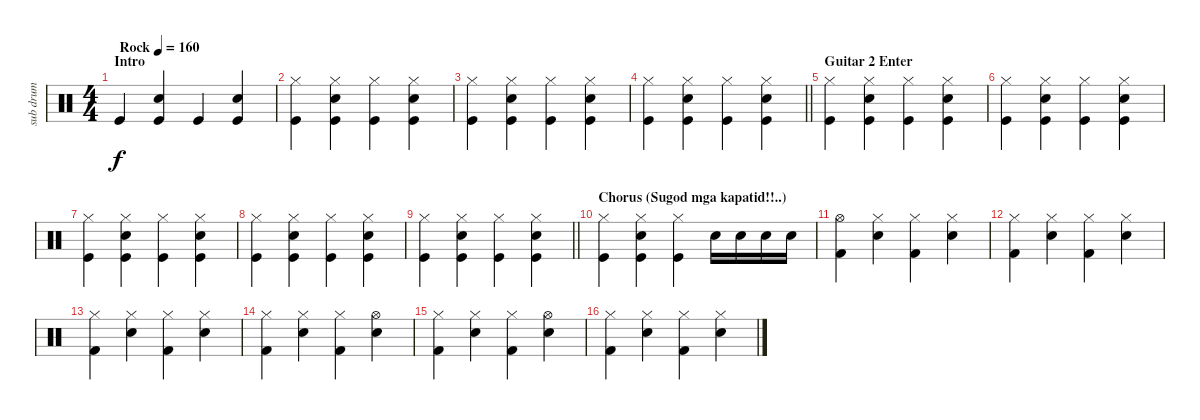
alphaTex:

\track ("sub drum" "sub drum") {instrument percussion}
\staff {score}
\articulation defaults
\ts (4 4)
\section ("" "Intro")
\tempo (160 "Rock")
\clef neutral
\ks c "Kick (hit)".4{dy f}
("Snare (hit) 2" "Kick (hit)").4 "Kick (hit)".4 ("Snare (hit) 2" "Kick (hit)").4 |
("Hi-Hat (closed)" "Kick (hit)").4 ("Hi-Hat (closed)" "Snare (hit) 2" "Kick (hit)").4 ("Hi-Hat (closed)" "Kick (hit)").4 ("Hi-Hat (closed)" "Snare (hit) 2" "Kick (hit)").4 |
("Hi-Hat (closed)" "Kick (hit)").4 ("Hi-Hat (closed)" "Snare (hit) 2" "Kick (hit)").4 ("Hi-Hat (closed)" "Kick (hit)").4 ("Hi-Hat (closed)" "Snare (hit) 2" "Kick (hit)").4 |
\barLineRight lightlight
("Hi-Hat (closed)" "Kick (hit)").4 ("Hi-Hat (closed)" "Snare (hit) 2" "Kick (hit)").4 ("Hi-Hat (closed)" "Kick (hit)").4 ("Hi-Hat (closed)" "Snare (hit) 2" "Kick (hit)").4 |
\section ("" "Guitar 2 Enter")
("Hi-Hat (closed)" "Kick (hit)").4 ("Hi-Hat (closed)" "Snare (hit) 2" "Kick (hit)").4 ("Hi-Hat (closed)" "Kick (hit)").4 ("Hi-Hat (closed)" "Snare (hit) 2" "Kick (hit)").4 |
("Hi-Hat (closed)" "Kick (hit)").4 ("Hi-Hat (closed)" "Snare (hit) 2" "Kick (hit)").4 ("Hi-Hat (closed)" "Kick (hit)").4 ("Hi-Hat (closed)" "Snare (hit) 2" "Kick (hit)").4 |
("Hi-Hat (closed)" "Kick (hit)").4 ("Hi-Hat (closed)" "Snare (hit) 2" "Kick (hit)").4 ("Hi-Hat (closed)" "Kick (hit)").4 ("Hi-Hat (closed)" "Snare (hit) 2" "Kick (hit)").4 |
("Hi-Hat (closed)" "Kick (hit)").4 ("Hi-Hat (closed)" "Snare (hit) 2" "Kick (hit)").4 ("Hi-Hat (closed)" "Kick (hit)").4 ("Hi-Hat (closed)" "Snare (hit) 2" "Kick (hit)").4 |
\barLineRight lightlight
("Hi-Hat (closed)" "Kick (hit)").4 ("Hi-Hat (closed)" "Snare (hit) 2" "Kick (hit)").4 ("Hi-Hat (closed)" "Kick (hit)").4 ("Hi-Hat (closed)" "Snare (hit) 2" "Kick (hit)").4 |
\section ("" "Chorus (Sugod mga kapatid!!..)")
("Hi-Hat (closed)" "Kick (hit)").4 ("Hi-Hat (closed)" "Snare (hit) 2" "Kick (hit)").4 ("Hi-Hat (closed)" "Kick (hit)").4 "Snare (hit) 2".16 "Snare (hit) 2".16 "Snare (hit) 2".16 "Snare (hit) 2".16 |
("Hi-Hat (open)" "Kick (hit) 2").4 ("Hi-Hat (closed)" "Snare (hit) 2").4 ("Hi-Hat (closed)" "Kick (hit) 2").4 ("Hi-Hat (closed)" "Snare (hit) 2").4 |
("Hi-Hat (closed)" "Kick (hit) 2").4 ("Hi-Hat (closed)" "Snare (hit) 2").4 ("Hi-Hat (closed)" "Kick (hit) 2").4 ("Hi-Hat (closed)" "Snare (hit) 2").4 |
("Hi-Hat (closed)" "Kick (hit) 2").4 ("Hi-Hat (closed)" "Snare (hit) 2").4 ("Hi-Hat (closed)" "Kick (hit) 2").4 ("Hi-Hat (closed)" "Snare (hit) 2").4 |
("Hi-Hat (closed)" "Kick (hit) 2").4 ("Hi-Hat (closed)" "Snare (hit) 2").4 ("Hi-Hat (closed)" "Kick (hit) 2").4 ("Hi-Hat (open)" "Snare (hit) 2").4 |
("Hi-Hat (closed)" "Kick (hit) 2").4 ("Hi-Hat (closed)" "Snare (hit) 2").4 ("Hi-Hat (closed)" "Kick (hit) 2").4 ("Hi-Hat (open)" "Snare (hit) 2").4 |
("Hi-Hat (closed)" "Kick (hit) 2").4 ("Hi-Hat (closed)" "Snare (hit) 2").4 ("Hi-Hat (closed)" "Kick (hit) 2").4 ("Hi-Hat (closed)" "Snare (hit) 2").4
